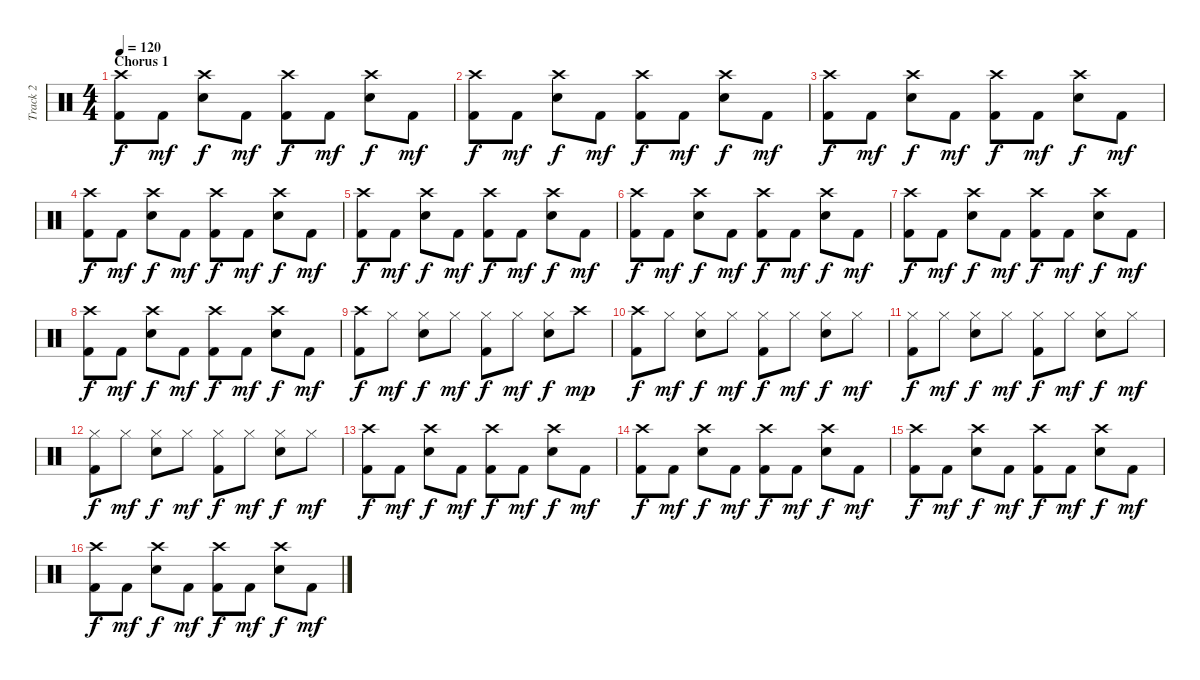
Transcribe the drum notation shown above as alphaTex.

\track ("Track 2" "Track 2") {instrument percussion}
\staff {score}
\articulation defaults
\ts (4 4)
\section ("" "Chorus 1")
\tempo 120
\clef neutral
\ks c
("Crash high (hit)" "Kick (hit) 2").8{dy f} "Kick (hit) 2".8{dy mf} ("Crash high (hit)" "Electric Snare (hit)").8{dy f} "Kick (hit) 2".8{dy mf} ("Crash high (hit)" "Kick (hit) 2").8{dy f} "Kick (hit) 2".8{dy mf} ("Crash high (hit)" "Electric Snare (hit)").8{dy f} "Kick (hit) 2".8{dy mf} |
("Crash high (hit)" "Kick (hit) 2").8{dy f} "Kick (hit) 2".8{dy mf} ("Crash high (hit)" "Electric Snare (hit)").8{dy f} "Kick (hit) 2".8{dy mf} ("Crash high (hit)" "Kick (hit) 2").8{dy f} "Kick (hit) 2".8{dy mf} ("Crash high (hit)" "Electric Snare (hit)").8{dy f} "Kick (hit) 2".8{dy mf} |
("Crash high (hit)" "Kick (hit) 2").8{dy f} "Kick (hit) 2".8{dy mf} ("Crash high (hit)" "Electric Snare (hit)").8{dy f} "Kick (hit) 2".8{dy mf} ("Crash high (hit)" "Kick (hit) 2").8{dy f} "Kick (hit) 2".8{dy mf} ("Crash high (hit)" "Electric Snare (hit)").8{dy f} "Kick (hit) 2".8{dy mf} |
("Crash high (hit)" "Kick (hit) 2").8{dy f} "Kick (hit) 2".8{dy mf} ("Crash high (hit)" "Electric Snare (hit)").8{dy f} "Kick (hit) 2".8{dy mf} ("Crash high (hit)" "Kick (hit) 2").8{dy f} "Kick (hit) 2".8{dy mf} ("Crash high (hit)" "Electric Snare (hit)").8{dy f} "Kick (hit) 2".8{dy mf} |
("Crash high (hit)" "Kick (hit) 2").8{dy f} "Kick (hit) 2".8{dy mf} ("Crash high (hit)" "Electric Snare (hit)").8{dy f} "Kick (hit) 2".8{dy mf} ("Crash high (hit)" "Kick (hit) 2").8{dy f} "Kick (hit) 2".8{dy mf} ("Crash high (hit)" "Electric Snare (hit)").8{dy f} "Kick (hit) 2".8{dy mf} |
("Crash high (hit)" "Kick (hit) 2").8{dy f} "Kick (hit) 2".8{dy mf} ("Crash high (hit)" "Electric Snare (hit)").8{dy f} "Kick (hit) 2".8{dy mf} ("Crash high (hit)" "Kick (hit) 2").8{dy f} "Kick (hit) 2".8{dy mf} ("Crash high (hit)" "Electric Snare (hit)").8{dy f} "Kick (hit) 2".8{dy mf} |
("Crash high (hit)" "Kick (hit) 2").8{dy f} "Kick (hit) 2".8{dy mf} ("Crash high (hit)" "Electric Snare (hit)").8{dy f} "Kick (hit) 2".8{dy mf} ("Crash high (hit)" "Kick (hit) 2").8{dy f} "Kick (hit) 2".8{dy mf} ("Crash high (hit)" "Electric Snare (hit)").8{dy f} "Kick (hit) 2".8{dy mf} |
("Crash high (hit)" "Kick (hit) 2").8{dy f} "Kick (hit) 2".8{dy mf} ("Crash high (hit)" "Electric Snare (hit)").8{dy f} "Kick (hit) 2".8{dy mf} ("Crash high (hit)" "Kick (hit) 2").8{dy f} "Kick (hit) 2".8{dy mf} ("Crash high (hit)" "Electric Snare (hit)").8{dy f} "Kick (hit) 2".8{dy mf} |
("Crash high (hit)" "Kick (hit) 2").8{dy f} "Hi-Hat (closed)".8{dy mf} ("Hi-Hat (closed)" "Electric Snare (hit)").8{dy f} "Hi-Hat (closed)".8{dy mf} ("Hi-Hat (closed)" "Kick (hit) 2").8{dy f} "Hi-Hat (closed)".8{dy mf} ("Hi-Hat (closed)" "Electric Snare (hit)").8{dy f} "Crash high (hit)".8{dy mp} |
("Crash high (hit)" "Kick (hit) 2").8{dy f} "Hi-Hat (closed)".8{dy mf} ("Hi-Hat (closed)" "Electric Snare (hit)").8{dy f} "Hi-Hat (closed)".8{dy mf} ("Hi-Hat (closed)" "Kick (hit) 2").8{dy f} "Hi-Hat (closed)".8{dy mf} ("Hi-Hat (closed)" "Electric Snare (hit)").8{dy f} "Hi-Hat (closed)".8{dy mf} |
("Hi-Hat (closed)" "Kick (hit) 2").8{dy f} "Hi-Hat (closed)".8{dy mf} ("Hi-Hat (closed)" "Electric Snare (hit)").8{dy f} "Hi-Hat (closed)".8{dy mf} ("Hi-Hat (closed)" "Kick (hit) 2").8{dy f} "Hi-Hat (closed)".8{dy mf} ("Hi-Hat (closed)" "Electric Snare (hit)").8{dy f} "Hi-Hat (closed)".8{dy mf} |
("Hi-Hat (closed)" "Kick (hit) 2").8{dy f} "Hi-Hat (closed)".8{dy mf} ("Hi-Hat (closed)" "Electric Snare (hit)").8{dy f} "Hi-Hat (closed)".8{dy mf} ("Hi-Hat (closed)" "Kick (hit) 2").8{dy f} "Hi-Hat (closed)".8{dy mf} ("Hi-Hat (closed)" "Electric Snare (hit)").8{dy f} "Hi-Hat (closed)".8{dy mf} |
("Crash high (hit)" "Kick (hit) 2").8{dy f} "Kick (hit) 2".8{dy mf} ("Crash high (hit)" "Electric Snare (hit)").8{dy f} "Kick (hit) 2".8{dy mf} ("Crash high (hit)" "Kick (hit) 2").8{dy f} "Kick (hit) 2".8{dy mf} ("Crash high (hit)" "Electric Snare (hit)").8{dy f} "Kick (hit) 2".8{dy mf} |
("Crash high (hit)" "Kick (hit) 2").8{dy f} "Kick (hit) 2".8{dy mf} ("Crash high (hit)" "Electric Snare (hit)").8{dy f} "Kick (hit) 2".8{dy mf} ("Crash high (hit)" "Kick (hit) 2").8{dy f} "Kick (hit) 2".8{dy mf} ("Crash high (hit)" "Electric Snare (hit)").8{dy f} "Kick (hit) 2".8{dy mf} |
("Crash high (hit)" "Kick (hit) 2").8{dy f} "Kick (hit) 2".8{dy mf} ("Crash high (hit)" "Electric Snare (hit)").8{dy f} "Kick (hit) 2".8{dy mf} ("Crash high (hit)" "Kick (hit) 2").8{dy f} "Kick (hit) 2".8{dy mf} ("Crash high (hit)" "Electric Snare (hit)").8{dy f} "Kick (hit) 2".8{dy mf} |
("Crash high (hit)" "Kick (hit) 2").8{dy f} "Kick (hit) 2".8{dy mf} ("Crash high (hit)" "Electric Snare (hit)").8{dy f} "Kick (hit) 2".8{dy mf} ("Crash high (hit)" "Kick (hit) 2").8{dy f} "Kick (hit) 2".8{dy mf} ("Crash high (hit)" "Electric Snare (hit)").8{dy f} "Kick (hit) 2".8{dy mf}
